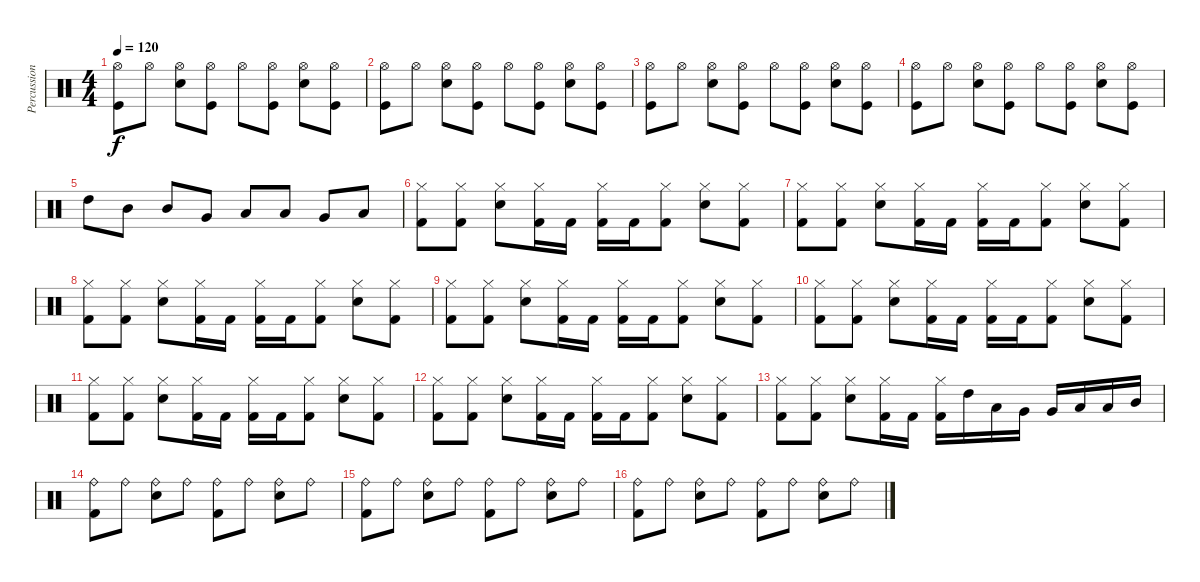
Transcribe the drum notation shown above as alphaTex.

\track ("Percussion" "Percussion") {instrument percussion}
\staff {score}
\articulation defaults
\ts (4 4)
\tempo 120
\clef neutral
\ks c
("Hi-Hat (open)" "Kick (hit)").8{dy f} "Hi-Hat (open)".8 ("Hi-Hat (open)" "Snare (hit) 2").8 ("Hi-Hat (open)" "Kick (hit)").8 "Hi-Hat (open)".8 ("Hi-Hat (open)" "Kick (hit)").8 ("Hi-Hat (open)" "Snare (hit) 2").8 ("Hi-Hat (open)" "Kick (hit)").8 |
("Hi-Hat (open)" "Kick (hit)").8 "Hi-Hat (open)".8 ("Hi-Hat (open)" "Snare (hit) 2").8 ("Hi-Hat (open)" "Kick (hit)").8 "Hi-Hat (open)".8 ("Hi-Hat (open)" "Kick (hit)").8 ("Hi-Hat (open)" "Snare (hit) 2").8 ("Hi-Hat (open)" "Kick (hit)").8 |
("Hi-Hat (open)" "Kick (hit)").8 "Hi-Hat (open)".8 ("Hi-Hat (open)" "Snare (hit) 2").8 ("Hi-Hat (open)" "Kick (hit)").8 "Hi-Hat (open)".8 ("Hi-Hat (open)" "Kick (hit)").8 ("Hi-Hat (open)" "Snare (hit) 2").8 ("Hi-Hat (open)" "Kick (hit)").8 |
("Hi-Hat (open)" "Kick (hit)").8 "Hi-Hat (open)".8 ("Hi-Hat (open)" "Snare (hit) 2").8 ("Hi-Hat (open)" "Kick (hit)").8 "Hi-Hat (open)".8 ("Hi-Hat (open)" "Kick (hit)").8 ("Hi-Hat (open)" "Snare (hit) 2").8 ("Hi-Hat (open)" "Kick (hit)").8 |
"High Tom (hit)".8 "Mid Tom (hit)".8 "Mid Tom (hit)".8 "Very Low Tom (hit)".8 "Low Floor Tom (hit)".8 "Low Floor Tom (hit)".8 "Very Low Tom (hit)".8 "Low Floor Tom (hit)".8 |
("Hi-Hat (closed)" "Kick (hit) 2").8 ("Hi-Hat (closed)" "Kick (hit) 2").8 ("Hi-Hat (closed)" "Electric Snare (hit)").8 ("Hi-Hat (closed)" "Kick (hit) 2").16 "Kick (hit) 2".16 ("Hi-Hat (closed)" "Kick (hit) 2").16 "Kick (hit) 2".16 ("Hi-Hat (closed)" "Kick (hit) 2").8 ("Hi-Hat (closed)" "Electric Snare (hit)").8 ("Hi-Hat (closed)" "Kick (hit) 2").8 |
("Hi-Hat (closed)" "Kick (hit) 2").8 ("Hi-Hat (closed)" "Kick (hit) 2").8 ("Hi-Hat (closed)" "Electric Snare (hit)").8 ("Hi-Hat (closed)" "Kick (hit) 2").16 "Kick (hit) 2".16 ("Hi-Hat (closed)" "Kick (hit) 2").16 "Kick (hit) 2".16 ("Hi-Hat (closed)" "Kick (hit) 2").8 ("Hi-Hat (closed)" "Electric Snare (hit)").8 ("Hi-Hat (closed)" "Kick (hit) 2").8 |
("Hi-Hat (closed)" "Kick (hit) 2").8 ("Hi-Hat (closed)" "Kick (hit) 2").8 ("Hi-Hat (closed)" "Electric Snare (hit)").8 ("Hi-Hat (closed)" "Kick (hit) 2").16 "Kick (hit) 2".16 ("Hi-Hat (closed)" "Kick (hit) 2").16 "Kick (hit) 2".16 ("Hi-Hat (closed)" "Kick (hit) 2").8 ("Hi-Hat (closed)" "Electric Snare (hit)").8 ("Hi-Hat (closed)" "Kick (hit) 2").8 |
("Hi-Hat (closed)" "Kick (hit) 2").8 ("Hi-Hat (closed)" "Kick (hit) 2").8 ("Hi-Hat (closed)" "Electric Snare (hit)").8 ("Hi-Hat (closed)" "Kick (hit) 2").16 "Kick (hit) 2".16 ("Hi-Hat (closed)" "Kick (hit) 2").16 "Kick (hit) 2".16 ("Hi-Hat (closed)" "Kick (hit) 2").8 ("Hi-Hat (closed)" "Electric Snare (hit)").8 ("Hi-Hat (closed)" "Kick (hit) 2").8 |
("Hi-Hat (closed)" "Kick (hit) 2").8 ("Hi-Hat (closed)" "Kick (hit) 2").8 ("Hi-Hat (closed)" "Electric Snare (hit)").8 ("Hi-Hat (closed)" "Kick (hit) 2").16 "Kick (hit) 2".16 ("Hi-Hat (closed)" "Kick (hit) 2").16 "Kick (hit) 2".16 ("Hi-Hat (closed)" "Kick (hit) 2").8 ("Hi-Hat (closed)" "Electric Snare (hit)").8 ("Hi-Hat (closed)" "Kick (hit) 2").8 |
("Hi-Hat (closed)" "Kick (hit) 2").8 ("Hi-Hat (closed)" "Kick (hit) 2").8 ("Hi-Hat (closed)" "Electric Snare (hit)").8 ("Hi-Hat (closed)" "Kick (hit) 2").16 "Kick (hit) 2".16 ("Hi-Hat (closed)" "Kick (hit) 2").16 "Kick (hit) 2".16 ("Hi-Hat (closed)" "Kick (hit) 2").8 ("Hi-Hat (closed)" "Electric Snare (hit)").8 ("Hi-Hat (closed)" "Kick (hit) 2").8 |
("Hi-Hat (closed)" "Kick (hit) 2").8 ("Hi-Hat (closed)" "Kick (hit) 2").8 ("Hi-Hat (closed)" "Electric Snare (hit)").8 ("Hi-Hat (closed)" "Kick (hit) 2").16 "Kick (hit) 2".16 ("Hi-Hat (closed)" "Kick (hit) 2").16 "Kick (hit) 2".16 ("Hi-Hat (closed)" "Kick (hit) 2").8 ("Hi-Hat (closed)" "Electric Snare (hit)").8 ("Hi-Hat (closed)" "Kick (hit) 2").8 |
("Hi-Hat (closed)" "Kick (hit) 2").8 ("Hi-Hat (closed)" "Kick (hit) 2").8 ("Hi-Hat (closed)" "Electric Snare (hit)").8 ("Hi-Hat (closed)" "Kick (hit) 2").16 "Kick (hit) 2".16 ("Hi-Hat (closed)" "Kick (hit) 2").16 "High Tom (hit)".16 "Low Tom (hit)".16 "Very Low Tom (hit)".16 "Very Low Tom (hit)".16 "Low Floor Tom (hit)".16 "Low Tom (hit)".16 "Mid Tom (hit)".16 |
("Ride (bell)" "Kick (hit) 2").8 "Ride (bell)".8 ("Ride (bell)" "Electric Snare (hit)").8 "Ride (bell)".8 ("Ride (bell)" "Kick (hit) 2").8 "Ride (bell)".8 ("Ride (bell)" "Electric Snare (hit)").8 "Ride (bell)".8 |
("Ride (bell)" "Kick (hit) 2").8 "Ride (bell)".8 ("Ride (bell)" "Electric Snare (hit)").8 "Ride (bell)".8 ("Ride (bell)" "Kick (hit) 2").8 "Ride (bell)".8 ("Ride (bell)" "Electric Snare (hit)").8 "Ride (bell)".8 |
("Ride (bell)" "Kick (hit) 2").8 "Ride (bell)".8 ("Ride (bell)" "Electric Snare (hit)").8 "Ride (bell)".8 ("Ride (bell)" "Kick (hit) 2").8 "Ride (bell)".8 ("Ride (bell)" "Electric Snare (hit)").8 "Ride (bell)".8
